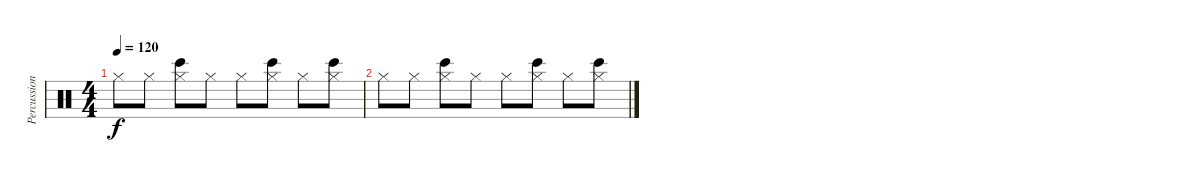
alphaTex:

\track ("Percussion" "Percussion") {instrument percussion}
\staff {score}
\articulation defaults
\ts (4 4)
\tempo 120
\clef neutral
\ks c "Hi-Hat (closed)".8{dy f} "Hi-Hat (closed)".8
("Bongo High (hit)" "Hi-Hat (closed)").8 "Hi-Hat (closed)".8 "Hi-Hat (closed)".8 ("Bongo High (hit)" "Hi-Hat (closed)").8 "Hi-Hat (closed)".8 ("Bongo High (hit)" "Hi-Hat (closed)").8 |
"Hi-Hat (closed)".8 "Hi-Hat (closed)".8 ("Bongo High (hit)" "Hi-Hat (closed)").8 "Hi-Hat (closed)".8 "Hi-Hat (closed)".8 ("Bongo High (hit)" "Hi-Hat (closed)").8 "Hi-Hat (closed)".8 ("Bongo High (hit)" "Hi-Hat (closed)").8
